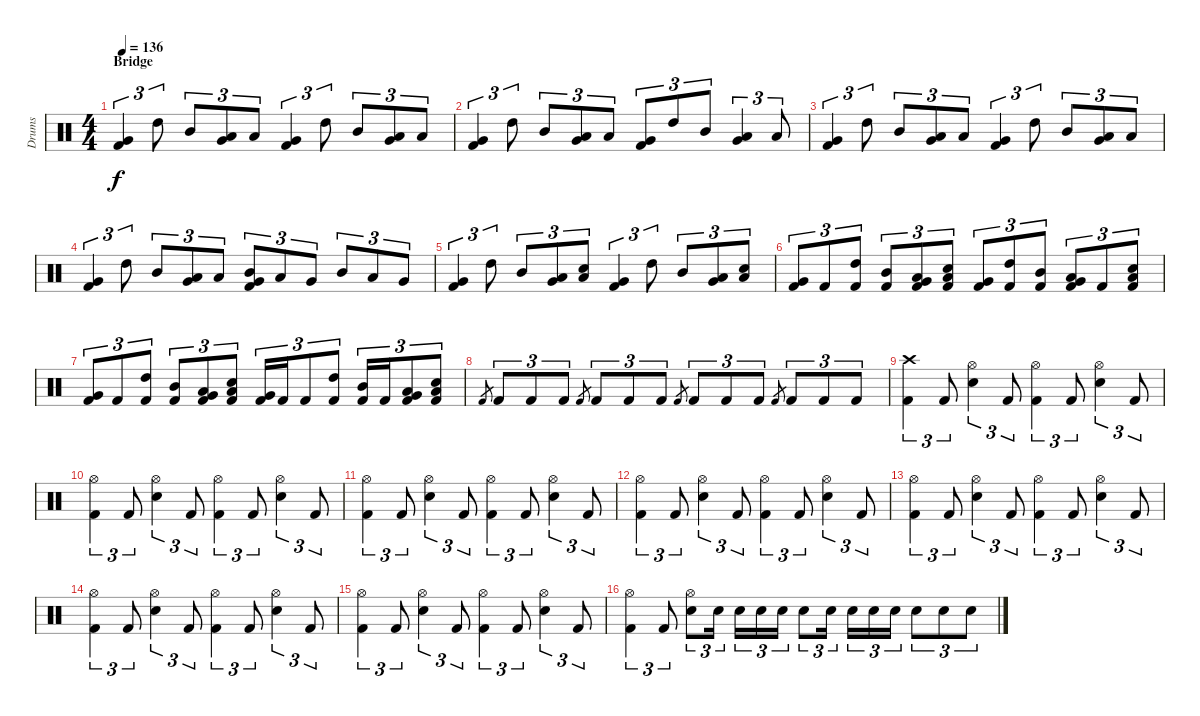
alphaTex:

\track ("Drums" "Drums") {instrument percussion}
\staff {score}
\articulation defaults
\ts (4 4)
\section ("" "Bridge")
\tempo 136
\clef neutral
\ks c
("Very Low Tom (hit)" "Kick (hit) 2").4{tu (3 2) dy f} "High Tom (hit)".8{tu (3 2)} "Mid Tom (hit)".8{tu (3 2)} ("Low Tom (hit)" "Very Low Tom (hit)").8{tu (3 2)} "Low Tom (hit)".8{tu (3 2)} ("Very Low Tom (hit)" "Kick (hit) 2").4{tu (3 2)} "High Tom (hit)".8{tu (3 2)} "Mid Tom (hit)".8{tu (3 2)} ("Low Tom (hit)" "Very Low Tom (hit)").8{tu (3 2)} "Low Tom (hit)".8{tu (3 2)} |
("Very Low Tom (hit)" "Kick (hit) 2").4{tu (3 2)} "High Tom (hit)".8{tu (3 2)} "Mid Tom (hit)".8{tu (3 2)} ("Low Tom (hit)" "Very Low Tom (hit)").8{tu (3 2)} "Low Tom (hit)".8{tu (3 2)} ("Very Low Tom (hit)" "Kick (hit) 2").8{tu (3 2)} "High Tom (hit)".8{tu (3 2)} "Mid Tom (hit)".8{tu (3 2)} ("Low Tom (hit)" "Very Low Tom (hit)").4{tu (3 2)} "Low Tom (hit)".8{tu (3 2)} |
("Very Low Tom (hit)" "Kick (hit) 2").4{tu (3 2)} "High Tom (hit)".8{tu (3 2)} "Mid Tom (hit)".8{tu (3 2)} ("Low Tom (hit)" "Very Low Tom (hit)").8{tu (3 2)} "Low Tom (hit)".8{tu (3 2)} ("Very Low Tom (hit)" "Kick (hit) 2").4{tu (3 2)} "High Tom (hit)".8{tu (3 2)} "Mid Tom (hit)".8{tu (3 2)} ("Low Tom (hit)" "Very Low Tom (hit)").8{tu (3 2)} "Low Tom (hit)".8{tu (3 2)} |
("Very Low Tom (hit)" "Kick (hit) 2").4{tu (3 2)} "High Tom (hit)".8{tu (3 2)} "Mid Tom (hit)".8{tu (3 2)} ("Low Tom (hit)" "Very Low Tom (hit)").8{tu (3 2)} "Low Tom (hit)".8{tu (3 2)} ("Mid Tom (hit)" "Very Low Tom (hit)" "Kick (hit) 2").8{tu (3 2)} "Low Tom (hit)".8{tu (3 2)} "Very Low Tom (hit)".8{tu (3 2)} "Mid Tom (hit)".8{tu (3 2)} "Low Tom (hit)".8{tu (3 2)} "Very Low Tom (hit)".8{tu (3 2)} |
("Very Low Tom (hit)" "Kick (hit) 2").4{tu (3 2)} "High Tom (hit)".8{tu (3 2)} "Mid Tom (hit)".8{tu (3 2)} ("Low Tom (hit)" "Very Low Tom (hit)").8{tu (3 2)} ("Low Tom (hit)" "Electric Snare (hit)").8{tu (3 2)} ("Very Low Tom (hit)" "Kick (hit) 2").4{tu (3 2)} "High Tom (hit)".8{tu (3 2)} "Mid Tom (hit)".8{tu (3 2)} ("Low Tom (hit)" "Very Low Tom (hit)").8{tu (3 2)} ("Low Tom (hit)" "Electric Snare (hit)").8{tu (3 2)} |
("Very Low Tom (hit)" "Kick (hit) 2").8{tu (3 2)} "Kick (hit) 2".8{tu (3 2)} ("High Tom (hit)" "Kick (hit) 2").8{tu (3 2)} ("Mid Tom (hit)" "Kick (hit) 2").8{tu (3 2)} ("Low Tom (hit)" "Very Low Tom (hit)" "Kick (hit) 2").8{tu (3 2)} ("Low Tom (hit)" "Electric Snare (hit)" "Kick (hit) 2").8{tu (3 2)} ("Very Low Tom (hit)" "Kick (hit) 2").8{tu (3 2)} ("High Tom (hit)" "Kick (hit) 2").8{tu (3 2)} ("Mid Tom (hit)" "Kick (hit) 2").8{tu (3 2)} ("Low Tom (hit)" "Very Low Tom (hit)" "Kick (hit) 2").8{tu (3 2)} "Kick (hit) 2".8{tu (3 2)} ("Low Tom (hit)" "Electric Snare (hit)" "Kick (hit) 2").8{tu (3 2)} |
("Very Low Tom (hit)" "Kick (hit) 2").8{tu (3 2)} "Kick (hit) 2".8{tu (3 2)} ("High Tom (hit)" "Kick (hit) 2").8{tu (3 2)} ("Mid Tom (hit)" "Kick (hit) 2").8{tu (3 2)} ("Low Tom (hit)" "Very Low Tom (hit)" "Kick (hit) 2").8{tu (3 2)} ("Low Tom (hit)" "Electric Snare (hit)" "Kick (hit) 2").8{tu (3 2)} ("Very Low Tom (hit)" "Kick (hit) 2").16{tu (3 2)} "Kick (hit) 2".16{tu (3 2)} "Kick (hit) 2".8{tu (3 2)} ("High Tom (hit)" "Kick (hit) 2").8{tu (3 2)} ("Mid Tom (hit)" "Kick (hit) 2").16{tu (3 2)} "Kick (hit) 2".16{tu (3 2)} ("Low Tom (hit)" "Very Low Tom (hit)" "Kick (hit) 2").8{tu (3 2)} ("Low Tom (hit)" "Electric Snare (hit)" "Kick (hit) 2").8{tu (3 2)} |
"Kick (hit) 2".8{gr} "Kick (hit) 2".8{tu (3 2)} "Kick (hit) 2".8{tu (3 2)} "Kick (hit) 2".8{tu (3 2)} "Kick (hit) 2".8{gr} "Kick (hit) 2".8{tu (3 2)} "Kick (hit) 2".8{tu (3 2)} "Kick (hit) 2".8{tu (3 2)} "Kick (hit) 2".8{gr} "Kick (hit) 2".8{tu (3 2)} "Kick (hit) 2".8{tu (3 2)} "Kick (hit) 2".8{tu (3 2)} "Kick (hit) 2".8{gr} "Kick (hit) 2".8{tu (3 2)} "Kick (hit) 2".8{tu (3 2)} "Kick (hit) 2".8{tu (3 2)} |
("Crash high (hit)" "Kick (hit) 2").4{tu (3 2)} "Kick (hit) 2".8{tu (3 2)} ("Hi-Hat (open)" "Electric Snare (hit)").4{tu (3 2)} "Kick (hit) 2".8{tu (3 2)} ("Hi-Hat (open)" "Kick (hit) 2").4{tu (3 2)} "Kick (hit) 2".8{tu (3 2)} ("Hi-Hat (open)" "Electric Snare (hit)").4{tu (3 2)} "Kick (hit) 2".8{tu (3 2)} |
("Hi-Hat (open)" "Kick (hit) 2").4{tu (3 2)} "Kick (hit) 2".8{tu (3 2)} ("Hi-Hat (open)" "Electric Snare (hit)").4{tu (3 2)} "Kick (hit) 2".8{tu (3 2)} ("Hi-Hat (open)" "Kick (hit) 2").4{tu (3 2)} "Kick (hit) 2".8{tu (3 2)} ("Hi-Hat (open)" "Electric Snare (hit)").4{tu (3 2)} "Kick (hit) 2".8{tu (3 2)} |
("Hi-Hat (open)" "Kick (hit) 2").4{tu (3 2)} "Kick (hit) 2".8{tu (3 2)} ("Hi-Hat (open)" "Electric Snare (hit)").4{tu (3 2)} "Kick (hit) 2".8{tu (3 2)} ("Hi-Hat (open)" "Kick (hit) 2").4{tu (3 2)} "Kick (hit) 2".8{tu (3 2)} ("Hi-Hat (open)" "Electric Snare (hit)").4{tu (3 2)} "Kick (hit) 2".8{tu (3 2)} |
("Hi-Hat (open)" "Kick (hit) 2").4{tu (3 2)} "Kick (hit) 2".8{tu (3 2)} ("Hi-Hat (open)" "Electric Snare (hit)").4{tu (3 2)} "Kick (hit) 2".8{tu (3 2)} ("Hi-Hat (open)" "Kick (hit) 2").4{tu (3 2)} "Kick (hit) 2".8{tu (3 2)} ("Hi-Hat (open)" "Electric Snare (hit)").4{tu (3 2)} "Kick (hit) 2".8{tu (3 2)} |
("Hi-Hat (open)" "Kick (hit) 2").4{tu (3 2)} "Kick (hit) 2".8{tu (3 2)} ("Hi-Hat (open)" "Electric Snare (hit)").4{tu (3 2)} "Kick (hit) 2".8{tu (3 2)} ("Hi-Hat (open)" "Kick (hit) 2").4{tu (3 2)} "Kick (hit) 2".8{tu (3 2)} ("Hi-Hat (open)" "Electric Snare (hit)").4{tu (3 2)} "Kick (hit) 2".8{tu (3 2)} |
("Hi-Hat (open)" "Kick (hit) 2").4{tu (3 2)} "Kick (hit) 2".8{tu (3 2)} ("Hi-Hat (open)" "Electric Snare (hit)").4{tu (3 2)} "Kick (hit) 2".8{tu (3 2)} ("Hi-Hat (open)" "Kick (hit) 2").4{tu (3 2)} "Kick (hit) 2".8{tu (3 2)} ("Hi-Hat (open)" "Electric Snare (hit)").4{tu (3 2)} "Kick (hit) 2".8{tu (3 2)} |
("Hi-Hat (open)" "Kick (hit) 2").4{tu (3 2)} "Kick (hit) 2".8{tu (3 2)} ("Hi-Hat (open)" "Electric Snare (hit)").4{tu (3 2)} "Kick (hit) 2".8{tu (3 2)} ("Hi-Hat (open)" "Kick (hit) 2").4{tu (3 2)} "Kick (hit) 2".8{tu (3 2)} ("Hi-Hat (open)" "Electric Snare (hit)").4{tu (3 2)} "Kick (hit) 2".8{tu (3 2)} |
("Hi-Hat (open)" "Kick (hit) 2").4{tu (3 2)} "Kick (hit) 2".8{tu (3 2)} ("Hi-Hat (open)" "Electric Snare (hit)").8{tu (3 2)} "Electric Snare (hit)".16{tu (3 2) beam splitsecondary} "Electric Snare (hit)".16{tu (3 2)} "Electric Snare (hit)".16{tu (3 2)} "Electric Snare (hit)".16{tu (3 2)} "Electric Snare (hit)".8{tu (3 2)} "Electric Snare (hit)".16{tu (3 2) beam splitsecondary} "Electric Snare (hit)".16{tu (3 2)} "Electric Snare (hit)".16{tu (3 2)} "Electric Snare (hit)".16{tu (3 2)} "Electric Snare (hit)".8{tu (3 2)} "Electric Snare (hit)".8{tu (3 2)} "Electric Snare (hit)".8{tu (3 2)}
